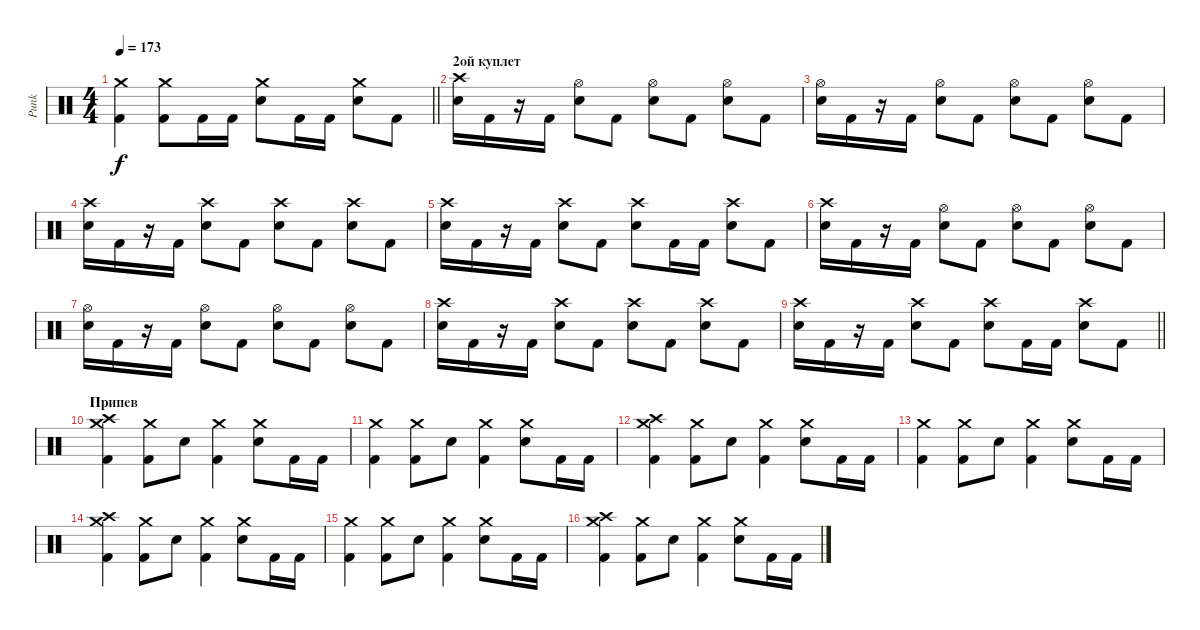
\track ("Punk" "Punk") {instrument percussion}
\staff {score}
\articulation defaults
\ts (4 4)
\tempo 173
\clef neutral
\barLineRight lightlight
\ks c
("Crash medium (hit)" "Kick (hit) 2").4{dy f} ("Crash medium (hit)" "Kick (hit) 2").8 "Kick (hit) 2".16 "Kick (hit) 2".16 ("Crash medium (hit)" "Electric Snare (hit)").8 "Kick (hit) 2".16 "Kick (hit) 2".16 ("Crash medium (hit)" "Electric Snare (hit)").8 "Kick (hit) 2".8 |
\section ("" "2ой куплет")
("Crash high (hit)" "Electric Snare (hit)").16 "Kick (hit) 2".16 r.16 "Kick (hit) 2".16 ("Hi-Hat (open)" "Electric Snare (hit)").8 "Kick (hit) 2".8 ("Hi-Hat (open)" "Electric Snare (hit)").8 "Kick (hit) 2".8 ("Hi-Hat (open)" "Electric Snare (hit)").8 "Kick (hit) 2".8 |
("Hi-Hat (open)" "Electric Snare (hit)").16 "Kick (hit) 2".16 r.16 "Kick (hit) 2".16 ("Hi-Hat (open)" "Electric Snare (hit)").8 "Kick (hit) 2".8 ("Hi-Hat (open)" "Electric Snare (hit)").8 "Kick (hit) 2".8 ("Hi-Hat (open)" "Electric Snare (hit)").8 "Kick (hit) 2".8 |
("Crash high (hit)" "Electric Snare (hit)").16 "Kick (hit) 2".16 r.16 "Kick (hit) 2".16 ("Crash high (hit)" "Electric Snare (hit)").8 "Kick (hit) 2".8 ("Crash high (hit)" "Electric Snare (hit)").8 "Kick (hit) 2".8 ("Crash high (hit)" "Electric Snare (hit)").8 "Kick (hit) 2".8 |
("Crash high (hit)" "Electric Snare (hit)").16 "Kick (hit) 2".16 r.16 "Kick (hit) 2".16 ("Crash high (hit)" "Electric Snare (hit)").8 "Kick (hit) 2".8 ("Crash high (hit)" "Electric Snare (hit)").8 "Kick (hit) 2".16 "Kick (hit) 2".16 ("Crash high (hit)" "Electric Snare (hit)").8 "Kick (hit) 2".8 |
("Crash high (hit)" "Electric Snare (hit)").16 "Kick (hit) 2".16 r.16 "Kick (hit) 2".16 ("Hi-Hat (open)" "Electric Snare (hit)").8 "Kick (hit) 2".8 ("Hi-Hat (open)" "Electric Snare (hit)").8 "Kick (hit) 2".8 ("Hi-Hat (open)" "Electric Snare (hit)").8 "Kick (hit) 2".8 |
("Hi-Hat (open)" "Electric Snare (hit)").16 "Kick (hit) 2".16 r.16 "Kick (hit) 2".16 ("Hi-Hat (open)" "Electric Snare (hit)").8 "Kick (hit) 2".8 ("Hi-Hat (open)" "Electric Snare (hit)").8 "Kick (hit) 2".8 ("Hi-Hat (open)" "Electric Snare (hit)").8 "Kick (hit) 2".8 |
("Crash high (hit)" "Electric Snare (hit)").16 "Kick (hit) 2".16 r.16 "Kick (hit) 2".16 ("Crash high (hit)" "Electric Snare (hit)").8 "Kick (hit) 2".8 ("Crash high (hit)" "Electric Snare (hit)").8 "Kick (hit) 2".8 ("Crash high (hit)" "Electric Snare (hit)").8 "Kick (hit) 2".8 |
\barLineRight lightlight
("Crash high (hit)" "Electric Snare (hit)").16 "Kick (hit) 2".16 r.16 "Kick (hit) 2".16 ("Crash high (hit)" "Electric Snare (hit)").8 "Kick (hit) 2".8 ("Crash high (hit)" "Electric Snare (hit)").8 "Kick (hit) 2".16 "Kick (hit) 2".16 ("Crash high (hit)" "Electric Snare (hit)").8 "Kick (hit) 2".8 |
\section ("" "Припев")
("Crash medium (hit)" "Crash high (hit)" "Kick (hit) 2").4 ("Crash medium (hit)" "Kick (hit) 2").8 "Electric Snare (hit)".8 ("Crash medium (hit)" "Kick (hit) 2").4 ("Crash medium (hit)" "Electric Snare (hit)").8 "Kick (hit) 2".16 "Kick (hit) 2".16 |
("Crash medium (hit)" "Kick (hit) 2").4 ("Crash medium (hit)" "Kick (hit) 2").8 "Electric Snare (hit)".8 ("Crash medium (hit)" "Kick (hit) 2").4 ("Crash medium (hit)" "Electric Snare (hit)").8 "Kick (hit) 2".16 "Kick (hit) 2".16 |
("Crash medium (hit)" "Crash high (hit)" "Kick (hit) 2").4 ("Crash medium (hit)" "Kick (hit) 2").8 "Electric Snare (hit)".8 ("Crash medium (hit)" "Kick (hit) 2").4 ("Crash medium (hit)" "Electric Snare (hit)").8 "Kick (hit) 2".16 "Kick (hit) 2".16 |
("Crash medium (hit)" "Kick (hit) 2").4 ("Crash medium (hit)" "Kick (hit) 2").8 "Electric Snare (hit)".8 ("Crash medium (hit)" "Kick (hit) 2").4 ("Crash medium (hit)" "Electric Snare (hit)").8 "Kick (hit) 2".16 "Kick (hit) 2".16 |
("Crash medium (hit)" "Crash high (hit)" "Kick (hit) 2").4 ("Crash medium (hit)" "Kick (hit) 2").8 "Electric Snare (hit)".8 ("Crash medium (hit)" "Kick (hit) 2").4 ("Crash medium (hit)" "Electric Snare (hit)").8 "Kick (hit) 2".16 "Kick (hit) 2".16 |
("Crash medium (hit)" "Kick (hit) 2").4 ("Crash medium (hit)" "Kick (hit) 2").8 "Electric Snare (hit)".8 ("Crash medium (hit)" "Kick (hit) 2").4 ("Crash medium (hit)" "Electric Snare (hit)").8 "Kick (hit) 2".16 "Kick (hit) 2".16 |
("Crash medium (hit)" "Crash high (hit)" "Kick (hit) 2").4 ("Crash medium (hit)" "Kick (hit) 2").8 "Electric Snare (hit)".8 ("Crash medium (hit)" "Kick (hit) 2").4 ("Crash medium (hit)" "Electric Snare (hit)").8 "Kick (hit) 2".16 "Kick (hit) 2".16
